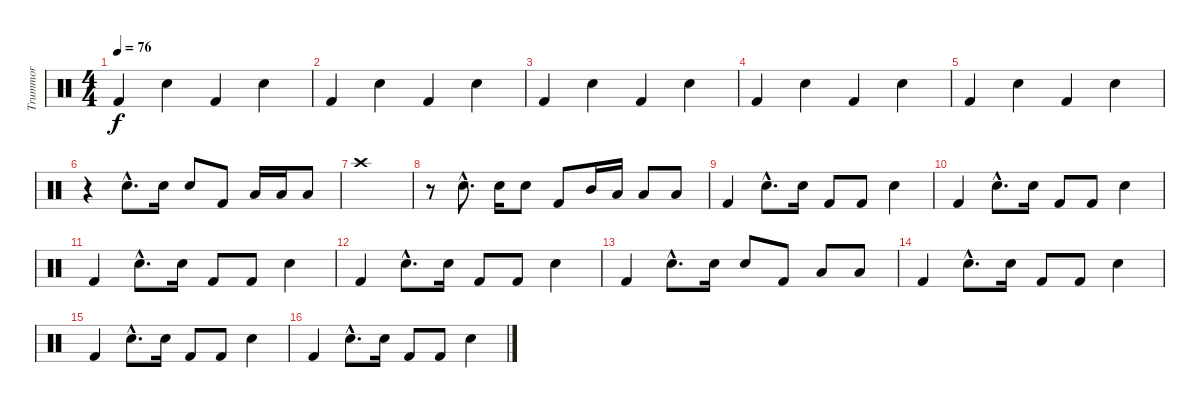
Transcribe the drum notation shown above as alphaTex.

\track ("Trummor" "Trummor") {instrument percussion}
\staff {score}
\articulation defaults
\ts (4 4)
\tempo 76
\clef neutral
\ks c "Kick (hit) 2".4{dy f} "Snare (hit) 2".4 "Kick (hit) 2".4 "Snare (hit) 2".4
|
"Kick (hit) 2".4 "Snare (hit) 2".4 "Kick (hit) 2".4 "Snare (hit) 2".4 |
"Kick (hit) 2".4 "Snare (hit) 2".4 "Kick (hit) 2".4 "Snare (hit) 2".4 |
"Kick (hit) 2".4 "Snare (hit) 2".4 "Kick (hit) 2".4 "Snare (hit) 2".4 |
"Kick (hit) 2".4 "Snare (hit) 2".4 "Kick (hit) 2".4 "Snare (hit) 2".4 |
r.4 "Snare (hit) 2"{hac}.8{d} "Snare (hit) 2".16 "Snare (hit) 2".8 "Kick (hit) 2".8 "Low Floor Tom (hit)".16 "Low Floor Tom (hit)".16 "Low Floor Tom (hit)".8 |
"Crash high (hit)".1 |
r.8 "Snare (hit) 2"{hac}.8{d} "Snare (hit) 2".16 "Snare (hit) 2".8 "Kick (hit) 2".8 "Mid Tom (hit)".16 "Low Floor Tom (hit)".16 "Low Floor Tom (hit)".8 "Low Floor Tom (hit)".8 |
"Kick (hit) 2".4 "Snare (hit) 2"{hac}.8{d} "Snare (hit) 2".16 "Kick (hit) 2".8 "Kick (hit) 2".8 "Snare (hit) 2".4 |
"Kick (hit) 2".4 "Snare (hit) 2"{hac}.8{d} "Snare (hit) 2".16 "Kick (hit) 2".8 "Kick (hit) 2".8 "Snare (hit) 2".4 |
"Kick (hit) 2".4 "Snare (hit) 2"{hac}.8{d} "Snare (hit) 2".16 "Kick (hit) 2".8 "Kick (hit) 2".8 "Snare (hit) 2".4 |
"Kick (hit) 2".4 "Snare (hit) 2"{hac}.8{d} "Snare (hit) 2".16 "Kick (hit) 2".8 "Kick (hit) 2".8 "Snare (hit) 2".4 |
"Kick (hit) 2".4 "Snare (hit) 2"{hac}.8{d} "Snare (hit) 2".16 "Snare (hit) 2".8 "Kick (hit) 2".8 "Low Floor Tom (hit)".8 "Low Floor Tom (hit)".8 |
"Kick (hit) 2".4 "Snare (hit) 2"{hac}.8{d} "Snare (hit) 2".16 "Kick (hit) 2".8 "Kick (hit) 2".8 "Snare (hit) 2".4 |
"Kick (hit) 2".4 "Snare (hit) 2"{hac}.8{d} "Snare (hit) 2".16 "Kick (hit) 2".8 "Kick (hit) 2".8 "Snare (hit) 2".4 |
"Kick (hit) 2".4 "Snare (hit) 2"{hac}.8{d} "Snare (hit) 2".16 "Kick (hit) 2".8 "Kick (hit) 2".8 "Snare (hit) 2".4
